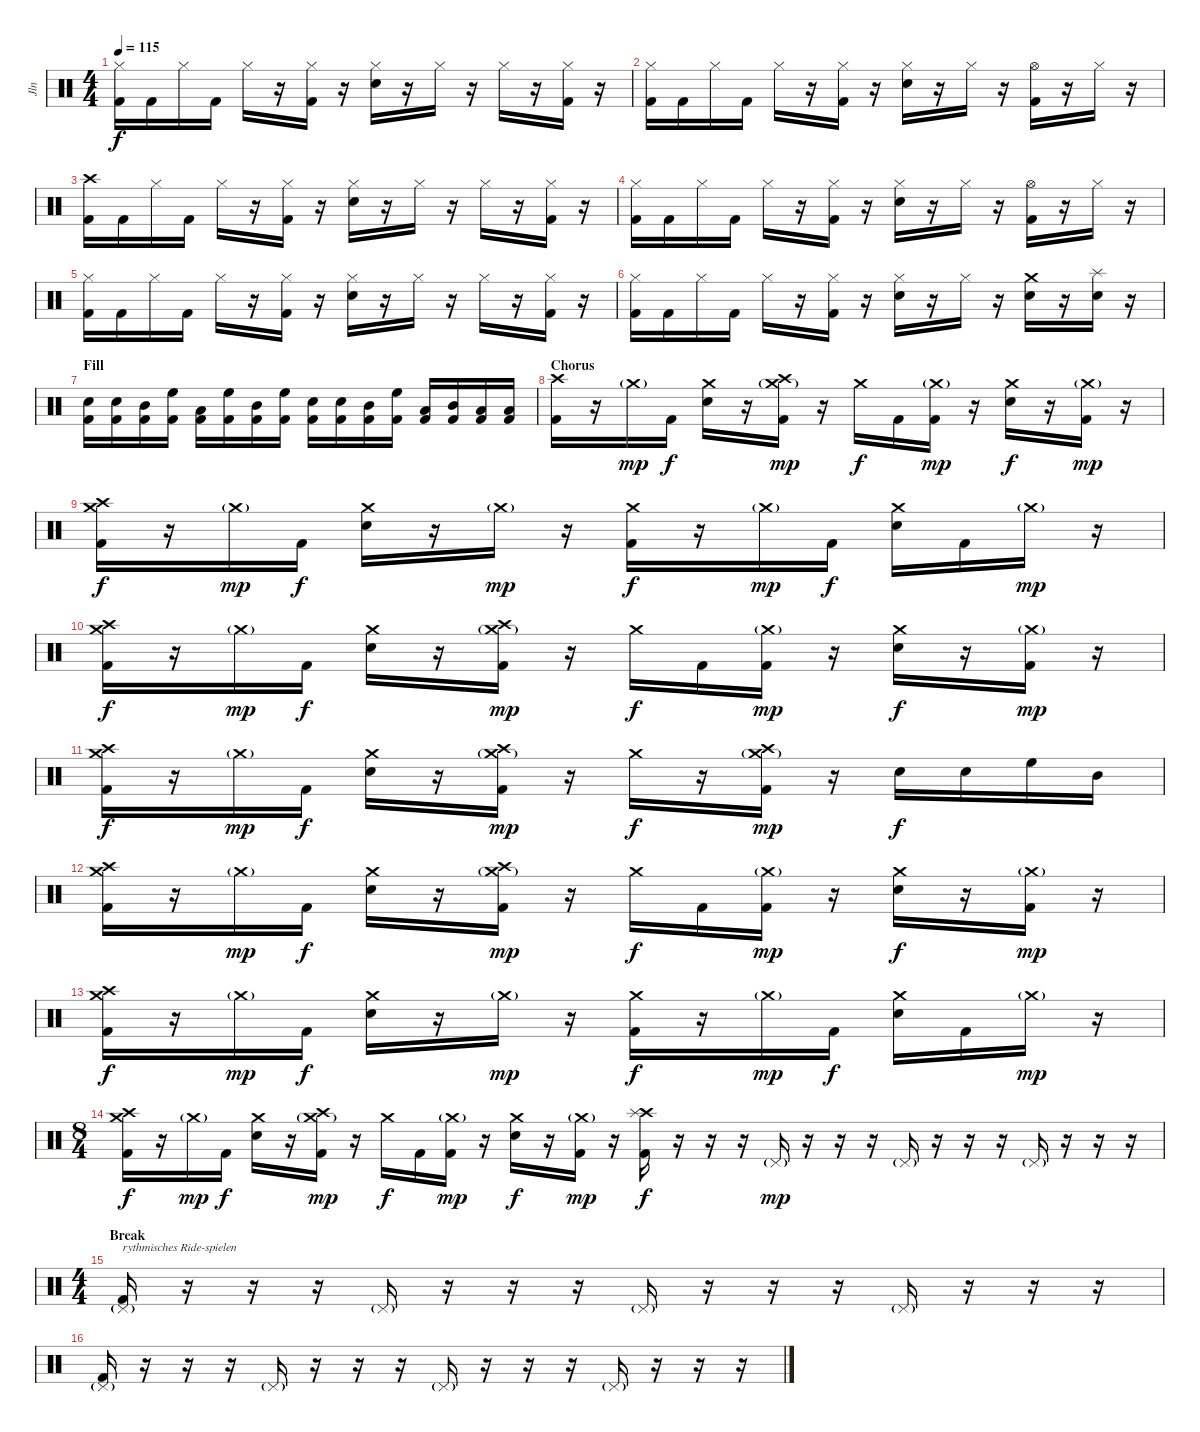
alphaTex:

\track ("Jln" "Jln") {instrument percussion}
\staff {score}
\articulation defaults
\ts (4 4)
\tempo 115
\clef neutral
\ks c
("Hi-Hat (closed)" "Kick (hit) 2").16{dy f} "Kick (hit) 2".16 "Hi-Hat (closed)".16 "Kick (hit) 2".16 "Hi-Hat (closed)".16 r.16 ("Hi-Hat (closed)" "Kick (hit) 2").16 r.16 ("Hi-Hat (closed)" "Electric Snare (hit)").16 r.16 "Hi-Hat (closed)".16 r.16 "Hi-Hat (closed)".16 r.16 ("Hi-Hat (closed)" "Kick (hit) 2").16 r.16 |
("Hi-Hat (closed)" "Kick (hit) 2").16 "Kick (hit) 2".16 "Hi-Hat (closed)".16 "Kick (hit) 2".16 "Hi-Hat (closed)".16 r.16 ("Hi-Hat (closed)" "Kick (hit) 2").16 r.16 ("Hi-Hat (closed)" "Electric Snare (hit)").16 r.16 "Hi-Hat (closed)".16 r.16 ("Hi-Hat (open)" "Kick (hit) 2").16 r.16 "Hi-Hat (closed)".16 r.16 |
("Crash high (hit)" "Kick (hit) 2").16 "Kick (hit) 2".16 "Hi-Hat (closed)".16 "Kick (hit) 2".16 "Hi-Hat (closed)".16 r.16 ("Hi-Hat (closed)" "Kick (hit) 2").16 r.16 ("Hi-Hat (closed)" "Electric Snare (hit)").16 r.16 "Hi-Hat (closed)".16 r.16 "Hi-Hat (closed)".16 r.16 ("Hi-Hat (closed)" "Kick (hit) 2").16 r.16 |
("Hi-Hat (closed)" "Kick (hit) 2").16 "Kick (hit) 2".16 "Hi-Hat (closed)".16 "Kick (hit) 2".16 "Hi-Hat (closed)".16 r.16 ("Hi-Hat (closed)" "Kick (hit) 2").16 r.16 ("Hi-Hat (closed)" "Electric Snare (hit)").16 r.16 "Hi-Hat (closed)".16 r.16 ("Hi-Hat (open)" "Kick (hit) 2").16 r.16 "Hi-Hat (closed)".16 r.16 |
("Hi-Hat (closed)" "Kick (hit) 2").16 "Kick (hit) 2".16 "Hi-Hat (closed)".16 "Kick (hit) 2".16 "Hi-Hat (closed)".16 r.16 ("Hi-Hat (closed)" "Kick (hit) 2").16 r.16 ("Hi-Hat (closed)" "Electric Snare (hit)").16 r.16 "Hi-Hat (closed)".16 r.16 "Hi-Hat (closed)".16 r.16 ("Hi-Hat (closed)" "Kick (hit) 2").16 r.16 |
("Hi-Hat (closed)" "Kick (hit) 2").16 "Kick (hit) 2".16 "Hi-Hat (closed)".16 "Kick (hit) 2".16 "Hi-Hat (closed)".16 r.16 ("Hi-Hat (closed)" "Kick (hit) 2").16 r.16 ("Hi-Hat (closed)" "Electric Snare (hit)").16 r.16 "Hi-Hat (closed)".16 r.16 ("Crash medium (hit)" "Electric Snare (hit)").16 r.16 ("Splash (hit)" "Electric Snare (hit)").16 r.16 |
\section ("" "Fill")
("Electric Snare (hit)" "Kick (hit) 2").16 ("Electric Snare (hit)" "Kick (hit) 2").16 ("Mid Tom (hit)" "Kick (hit) 2").16 ("High Floor Tom (hit)" "Kick (hit) 2").16 ("Low Tom (hit)" "Kick (hit) 2").16 ("High Floor Tom (hit)" "Kick (hit) 2").16 ("Mid Tom (hit)" "Kick (hit) 2").16 ("High Floor Tom (hit)" "Kick (hit) 2").16 ("Electric Snare (hit)" "Kick (hit) 2").16 ("Electric Snare (hit)" "Kick (hit) 2").16 ("Mid Tom (hit)" "Kick (hit) 2").16 ("High Floor Tom (hit)" "Kick (hit) 2").16 ("Low Tom (hit)" "Kick (hit) 2").16 ("Mid Tom (hit)" "Kick (hit) 2").16 ("Low Tom (hit)" "Kick (hit) 2").16 ("Low Tom (hit)" "Kick (hit) 2").16 |
\section ("" "Chorus")
("Crash high (hit)" "Kick (hit) 2").16 r.16 "Crash medium (hit)"{g}.16{dy mp} "Kick (hit) 2".16{dy f} ("Crash medium (hit)" "Electric Snare (hit)").16 r.16 ("Crash medium (hit)"{g} "Crash high (hit)" "Kick (hit) 2").16{dy mp} r.16 "Crash medium (hit)".16{dy f} "Kick (hit) 2".16 ("Crash medium (hit)"{g} "Kick (hit) 2").16{dy mp} r.16 ("Crash medium (hit)" "Electric Snare (hit)").16{dy f} r.16 ("Crash medium (hit)"{g} "Kick (hit) 2").16{dy mp} r.16 |
("Crash medium (hit)" "Crash high (hit)" "Kick (hit) 2").16{dy f} r.16 "Crash medium (hit)"{g}.16{dy mp} "Kick (hit) 2".16{dy f} ("Crash medium (hit)" "Electric Snare (hit)").16 r.16 "Crash medium (hit)"{g}.16{dy mp} r.16 ("Crash medium (hit)" "Kick (hit) 2").16{dy f} r.16 "Crash medium (hit)"{g}.16{dy mp} "Kick (hit) 2".16{dy f} ("Crash medium (hit)" "Electric Snare (hit)").16 "Kick (hit) 2".16 "Crash medium (hit)"{g}.16{dy mp} r.16 |
("Crash medium (hit)" "Crash high (hit)" "Kick (hit) 2").16{dy f} r.16 "Crash medium (hit)"{g}.16{dy mp} "Kick (hit) 2".16{dy f} ("Crash medium (hit)" "Electric Snare (hit)").16 r.16 ("Crash medium (hit)"{g} "Crash high (hit)" "Kick (hit) 2").16{dy mp} r.16 "Crash medium (hit)".16{dy f} "Kick (hit) 2".16 ("Crash medium (hit)"{g} "Kick (hit) 2").16{dy mp} r.16 ("Crash medium (hit)" "Electric Snare (hit)").16{dy f} r.16 ("Crash medium (hit)"{g} "Kick (hit) 2").16{dy mp} r.16 |
("Crash medium (hit)" "Crash high (hit)" "Kick (hit) 2").16{dy f} r.16 "Crash medium (hit)"{g}.16{dy mp} "Kick (hit) 2".16{dy f} ("Crash medium (hit)" "Electric Snare (hit)").16 r.16 ("Crash medium (hit)"{g} "Crash high (hit)" "Kick (hit) 2").16{dy mp} r.16 "Crash medium (hit)".16{dy f} r.16 ("Crash medium (hit)"{g} "Crash high (hit)" "Kick (hit) 2").16{dy mp} r.16 "Electric Snare (hit)".16{dy f} "Electric Snare (hit)".16 "High Floor Tom (hit)".16 "Mid Tom (hit)".16 |
("Crash medium (hit)" "Crash high (hit)" "Kick (hit) 2").16 r.16 "Crash medium (hit)"{g}.16{dy mp} "Kick (hit) 2".16{dy f} ("Crash medium (hit)" "Electric Snare (hit)").16 r.16 ("Crash medium (hit)"{g} "Crash high (hit)" "Kick (hit) 2").16{dy mp} r.16 "Crash medium (hit)".16{dy f} "Kick (hit) 2".16 ("Crash medium (hit)"{g} "Kick (hit) 2").16{dy mp} r.16 ("Crash medium (hit)" "Electric Snare (hit)").16{dy f} r.16 ("Crash medium (hit)"{g} "Kick (hit) 2").16{dy mp} r.16 |
("Crash medium (hit)" "Crash high (hit)" "Kick (hit) 2").16{dy f} r.16 "Crash medium (hit)"{g}.16{dy mp} "Kick (hit) 2".16{dy f} ("Crash medium (hit)" "Electric Snare (hit)").16 r.16 "Crash medium (hit)"{g}.16{dy mp} r.16 ("Crash medium (hit)" "Kick (hit) 2").16{dy f} r.16 "Crash medium (hit)"{g}.16{dy mp} "Kick (hit) 2".16{dy f} ("Crash medium (hit)" "Electric Snare (hit)").16 "Kick (hit) 2".16 "Crash medium (hit)"{g}.16{dy mp} r.16 |
\ts (8 4)
("Crash medium (hit)" "Crash high (hit)" "Kick (hit) 2").16{dy f} r.16 "Crash medium (hit)"{g}.16{dy mp} "Kick (hit) 2".16{dy f} ("Crash medium (hit)" "Electric Snare (hit)").16 r.16 ("Crash medium (hit)"{g} "Crash high (hit)" "Kick (hit) 2").16{dy mp} r.16 "Crash medium (hit)".16{dy f} "Kick (hit) 2".16 ("Crash medium (hit)"{g} "Kick (hit) 2").16{dy mp} r.16 ("Crash medium (hit)" "Electric Snare (hit)").16{dy f} r.16 ("Crash medium (hit)"{g} "Kick (hit) 2").16{dy mp} r.16 ("Crash high (hit)" "Splash (hit)" "Kick (hit) 2").16{dy f} r.16 r.16 r.16 "Pedal Hi-Hat (hit)"{g}.16{dy mp} r.16 r.16 r.16 "Pedal Hi-Hat (hit)"{g}.16 r.16 r.16 r.16 "Pedal Hi-Hat (hit)"{g}.16 r.16 r.16 r.16 |
\ts (4 4)
\section ("" "Break")
("Pedal Hi-Hat (hit)"{g} "Kick (hit) 2").16{txt "rythmisches Ride-spielen"} r.16 r.16 r.16 "Pedal Hi-Hat (hit)"{g}.16 r.16 r.16 r.16 "Pedal Hi-Hat (hit)"{g}.16 r.16 r.16 r.16 "Pedal Hi-Hat (hit)"{g}.16 r.16 r.16 r.16 |
("Pedal Hi-Hat (hit)"{g} "Kick (hit) 2").16 r.16 r.16 r.16 "Pedal Hi-Hat (hit)"{g}.16 r.16 r.16 r.16 "Pedal Hi-Hat (hit)"{g}.16 r.16 r.16 r.16 "Pedal Hi-Hat (hit)"{g}.16 r.16 r.16 r.16
